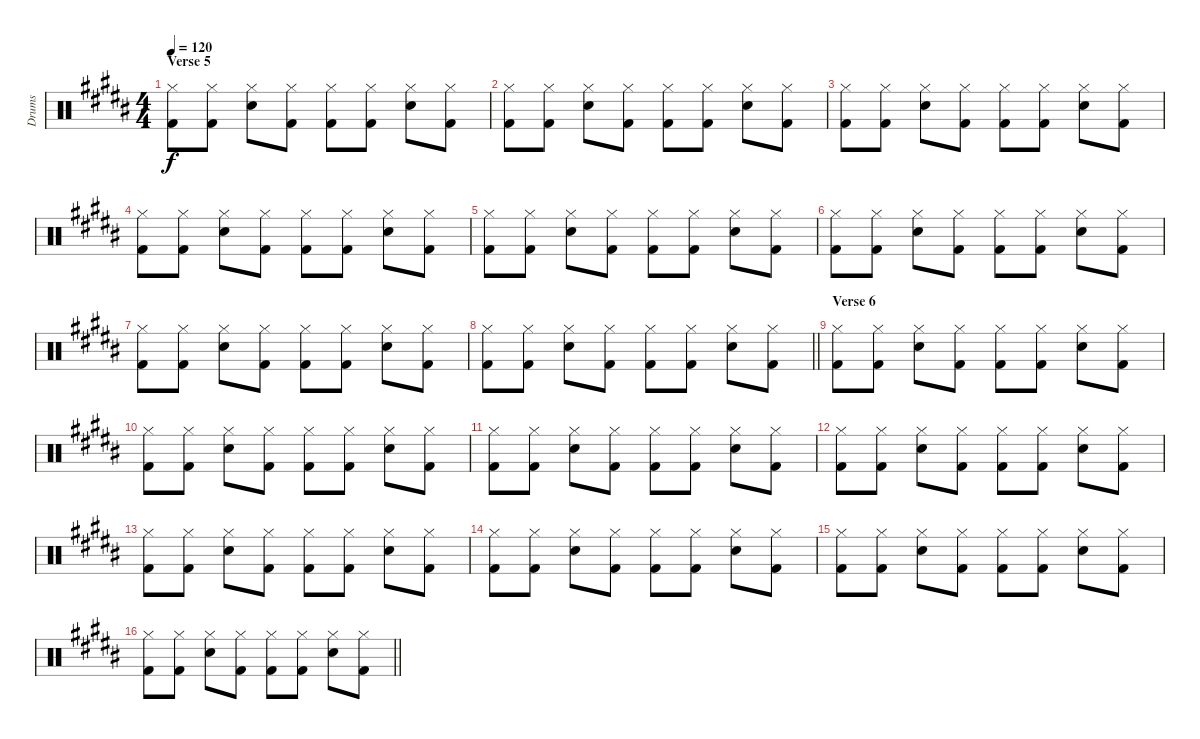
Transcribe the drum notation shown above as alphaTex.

\track ("Drums" "Drums") {instrument percussion}
\staff {score}
\articulation defaults
\ts (4 4)
\section ("" "Verse 5")
\tempo 120
\clef neutral
\ks b
("Kick (hit) 2" "Hi-Hat (closed)").8{dy f} ("Kick (hit) 2" "Hi-Hat (closed)").8 ("Snare (hit) 2" "Hi-Hat (closed)").8 ("Kick (hit) 2" "Hi-Hat (closed)").8 ("Kick (hit) 2" "Hi-Hat (closed)").8 ("Kick (hit) 2" "Hi-Hat (closed)").8 ("Snare (hit) 2" "Hi-Hat (closed)").8 ("Kick (hit) 2" "Hi-Hat (closed)").8 |
("Kick (hit) 2" "Hi-Hat (closed)").8 ("Kick (hit) 2" "Hi-Hat (closed)").8 ("Snare (hit) 2" "Hi-Hat (closed)").8 ("Kick (hit) 2" "Hi-Hat (closed)").8 ("Kick (hit) 2" "Hi-Hat (closed)").8 ("Kick (hit) 2" "Hi-Hat (closed)").8 ("Snare (hit) 2" "Hi-Hat (closed)").8 ("Kick (hit) 2" "Hi-Hat (closed)").8 |
("Kick (hit) 2" "Hi-Hat (closed)").8 ("Kick (hit) 2" "Hi-Hat (closed)").8 ("Snare (hit) 2" "Hi-Hat (closed)").8 ("Kick (hit) 2" "Hi-Hat (closed)").8 ("Kick (hit) 2" "Hi-Hat (closed)").8 ("Kick (hit) 2" "Hi-Hat (closed)").8 ("Snare (hit) 2" "Hi-Hat (closed)").8 ("Kick (hit) 2" "Hi-Hat (closed)").8 |
("Kick (hit) 2" "Hi-Hat (closed)").8 ("Kick (hit) 2" "Hi-Hat (closed)").8 ("Snare (hit) 2" "Hi-Hat (closed)").8 ("Kick (hit) 2" "Hi-Hat (closed)").8 ("Kick (hit) 2" "Hi-Hat (closed)").8 ("Kick (hit) 2" "Hi-Hat (closed)").8 ("Snare (hit) 2" "Hi-Hat (closed)").8 ("Kick (hit) 2" "Hi-Hat (closed)").8 |
("Kick (hit) 2" "Hi-Hat (closed)").8 ("Kick (hit) 2" "Hi-Hat (closed)").8 ("Snare (hit) 2" "Hi-Hat (closed)").8 ("Kick (hit) 2" "Hi-Hat (closed)").8 ("Kick (hit) 2" "Hi-Hat (closed)").8 ("Kick (hit) 2" "Hi-Hat (closed)").8 ("Snare (hit) 2" "Hi-Hat (closed)").8 ("Kick (hit) 2" "Hi-Hat (closed)").8 |
("Kick (hit) 2" "Hi-Hat (closed)").8 ("Kick (hit) 2" "Hi-Hat (closed)").8 ("Snare (hit) 2" "Hi-Hat (closed)").8 ("Kick (hit) 2" "Hi-Hat (closed)").8 ("Kick (hit) 2" "Hi-Hat (closed)").8 ("Kick (hit) 2" "Hi-Hat (closed)").8 ("Snare (hit) 2" "Hi-Hat (closed)").8 ("Kick (hit) 2" "Hi-Hat (closed)").8 |
("Kick (hit) 2" "Hi-Hat (closed)").8 ("Kick (hit) 2" "Hi-Hat (closed)").8 ("Snare (hit) 2" "Hi-Hat (closed)").8 ("Kick (hit) 2" "Hi-Hat (closed)").8 ("Kick (hit) 2" "Hi-Hat (closed)").8 ("Kick (hit) 2" "Hi-Hat (closed)").8 ("Snare (hit) 2" "Hi-Hat (closed)").8 ("Kick (hit) 2" "Hi-Hat (closed)").8 |
\barLineRight lightlight
("Kick (hit) 2" "Hi-Hat (closed)").8 ("Kick (hit) 2" "Hi-Hat (closed)").8 ("Snare (hit) 2" "Hi-Hat (closed)").8 ("Kick (hit) 2" "Hi-Hat (closed)").8 ("Kick (hit) 2" "Hi-Hat (closed)").8 ("Kick (hit) 2" "Hi-Hat (closed)").8 ("Snare (hit) 2" "Hi-Hat (closed)").8 ("Kick (hit) 2" "Hi-Hat (closed)").8 |
\section ("" "Verse 6")
("Kick (hit) 2" "Hi-Hat (closed)").8 ("Kick (hit) 2" "Hi-Hat (closed)").8 ("Snare (hit) 2" "Hi-Hat (closed)").8 ("Kick (hit) 2" "Hi-Hat (closed)").8 ("Kick (hit) 2" "Hi-Hat (closed)").8 ("Kick (hit) 2" "Hi-Hat (closed)").8 ("Snare (hit) 2" "Hi-Hat (closed)").8 ("Kick (hit) 2" "Hi-Hat (closed)").8 |
("Kick (hit) 2" "Hi-Hat (closed)").8 ("Kick (hit) 2" "Hi-Hat (closed)").8 ("Snare (hit) 2" "Hi-Hat (closed)").8 ("Kick (hit) 2" "Hi-Hat (closed)").8 ("Kick (hit) 2" "Hi-Hat (closed)").8 ("Kick (hit) 2" "Hi-Hat (closed)").8 ("Snare (hit) 2" "Hi-Hat (closed)").8 ("Kick (hit) 2" "Hi-Hat (closed)").8 |
("Kick (hit) 2" "Hi-Hat (closed)").8 ("Kick (hit) 2" "Hi-Hat (closed)").8 ("Snare (hit) 2" "Hi-Hat (closed)").8 ("Kick (hit) 2" "Hi-Hat (closed)").8 ("Kick (hit) 2" "Hi-Hat (closed)").8 ("Kick (hit) 2" "Hi-Hat (closed)").8 ("Snare (hit) 2" "Hi-Hat (closed)").8 ("Kick (hit) 2" "Hi-Hat (closed)").8 |
("Kick (hit) 2" "Hi-Hat (closed)").8 ("Kick (hit) 2" "Hi-Hat (closed)").8 ("Snare (hit) 2" "Hi-Hat (closed)").8 ("Kick (hit) 2" "Hi-Hat (closed)").8 ("Kick (hit) 2" "Hi-Hat (closed)").8 ("Kick (hit) 2" "Hi-Hat (closed)").8 ("Snare (hit) 2" "Hi-Hat (closed)").8 ("Kick (hit) 2" "Hi-Hat (closed)").8 |
("Kick (hit) 2" "Hi-Hat (closed)").8 ("Kick (hit) 2" "Hi-Hat (closed)").8 ("Snare (hit) 2" "Hi-Hat (closed)").8 ("Kick (hit) 2" "Hi-Hat (closed)").8 ("Kick (hit) 2" "Hi-Hat (closed)").8 ("Kick (hit) 2" "Hi-Hat (closed)").8 ("Snare (hit) 2" "Hi-Hat (closed)").8 ("Kick (hit) 2" "Hi-Hat (closed)").8 |
("Kick (hit) 2" "Hi-Hat (closed)").8 ("Kick (hit) 2" "Hi-Hat (closed)").8 ("Snare (hit) 2" "Hi-Hat (closed)").8 ("Kick (hit) 2" "Hi-Hat (closed)").8 ("Kick (hit) 2" "Hi-Hat (closed)").8 ("Kick (hit) 2" "Hi-Hat (closed)").8 ("Snare (hit) 2" "Hi-Hat (closed)").8 ("Kick (hit) 2" "Hi-Hat (closed)").8 |
("Kick (hit) 2" "Hi-Hat (closed)").8 ("Kick (hit) 2" "Hi-Hat (closed)").8 ("Snare (hit) 2" "Hi-Hat (closed)").8 ("Kick (hit) 2" "Hi-Hat (closed)").8 ("Kick (hit) 2" "Hi-Hat (closed)").8 ("Kick (hit) 2" "Hi-Hat (closed)").8 ("Snare (hit) 2" "Hi-Hat (closed)").8 ("Kick (hit) 2" "Hi-Hat (closed)").8 |
\barLineRight lightlight
("Kick (hit) 2" "Hi-Hat (closed)").8 ("Kick (hit) 2" "Hi-Hat (closed)").8 ("Snare (hit) 2" "Hi-Hat (closed)").8 ("Kick (hit) 2" "Hi-Hat (closed)").8 ("Kick (hit) 2" "Hi-Hat (closed)").8 ("Kick (hit) 2" "Hi-Hat (closed)").8 ("Snare (hit) 2" "Hi-Hat (closed)").8 ("Kick (hit) 2" "Hi-Hat (closed)").8
